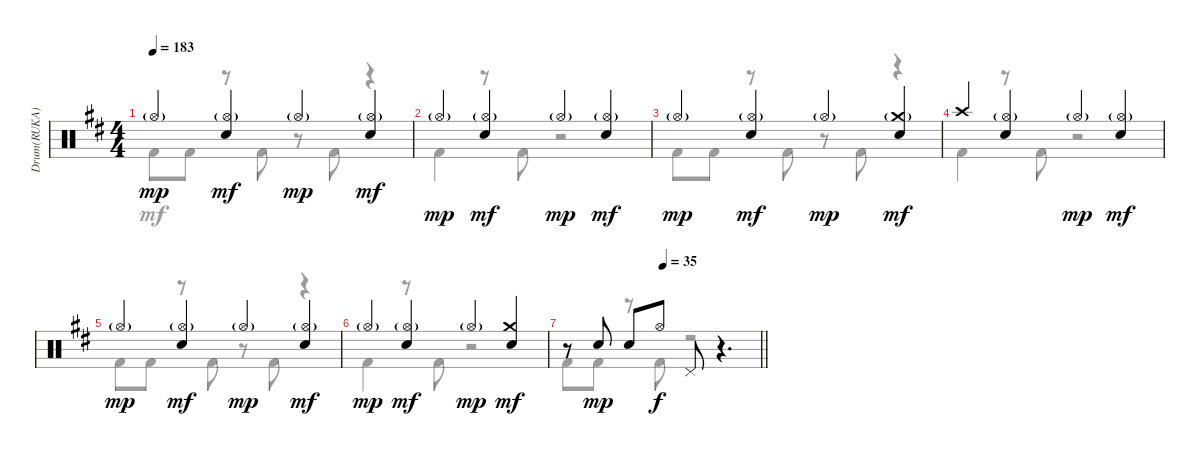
\track ("Drum(RUKA)" "Drum(RUKA)") {instrument percussion}
\staff {score}
\articulation defaults
\voice
\ts (4 4)
\tempo 183
\clef neutral
\ks d "Hi-Hat (open)"{g}.4{dy mp}
("Hi-Hat (open)"{g} "Snare (hit) 2").4{dy mf} "Hi-Hat (open)"{g}.4{dy mp} ("Hi-Hat (open)"{g} "Snare (hit) 2").4{dy mf} |
"Hi-Hat (open)"{g}.4{dy mp} ("Hi-Hat (open)"{g} "Snare (hit) 2").4{dy mf} "Hi-Hat (open)"{g}.4{dy mp} ("Hi-Hat (open)"{g} "Snare (hit) 2").4{dy mf} |
"Hi-Hat (open)"{g}.4{dy mp} ("Hi-Hat (open)"{g} "Snare (hit) 2").4{dy mf} "Hi-Hat (open)"{g}.4{dy mp} ("Crash medium (hit)"{g} "Snare (hit) 2").4{dy mf} |
"Crash high (hit)".4 ("Hi-Hat (open)"{g} "Snare (hit) 2").4 "Hi-Hat (open)"{g}.4{dy mp} ("Hi-Hat (open)"{g} "Snare (hit) 2").4{dy mf} |
"Hi-Hat (open)"{g}.4{dy mp} ("Hi-Hat (open)"{g} "Snare (hit) 2").4{dy mf} "Hi-Hat (open)"{g}.4{dy mp} ("Hi-Hat (open)"{g} "Snare (hit) 2").4{dy mf} |
"Hi-Hat (open)"{g}.4{dy mp} ("Hi-Hat (open)"{g} "Snare (hit) 2").4{dy mf} "Hi-Hat (open)"{g}.4{dy mp} ("Crash medium (hit)" "Snare (hit) 2").4{dy mf} |
\tempo (35 0.5)
\barLineRight lightlight
r.8 "Snare (hit) 2".8{dy mp} "Snare (hit) 2".8 "Hi-Hat (open)".8{dy f} "Pedal Hi-Hat (hit)".8 r.4{d}
\voice
\clef neutral
\ottava regular
\simile none
\ks d "Kick (hit) 2".8{dy mf} "Kick (hit) 2".8
r.8 "Kick (hit) 2".8 r.8 "Kick (hit) 2".8 r.4 |
"Kick (hit) 2".4 r.8 "Kick (hit) 2".8 r.2 |
"Kick (hit) 2".8 "Kick (hit) 2".8 r.8 "Kick (hit) 2".8 r.8 "Kick (hit) 2".8 r.4 |
"Kick (hit) 2".4 r.8 "Kick (hit) 2".8 r.2 |
"Kick (hit) 2".8 "Kick (hit) 2".8 r.8 "Kick (hit) 2".8 r.8 "Kick (hit) 2".8 r.4 |
"Kick (hit) 2".4 r.8 "Kick (hit) 2".8 r.2 |
\barLineRight lightlight "Kick (hit) 2".8 "Kick (hit) 2".8
r.8 "Kick (hit) 2".8 r.2
